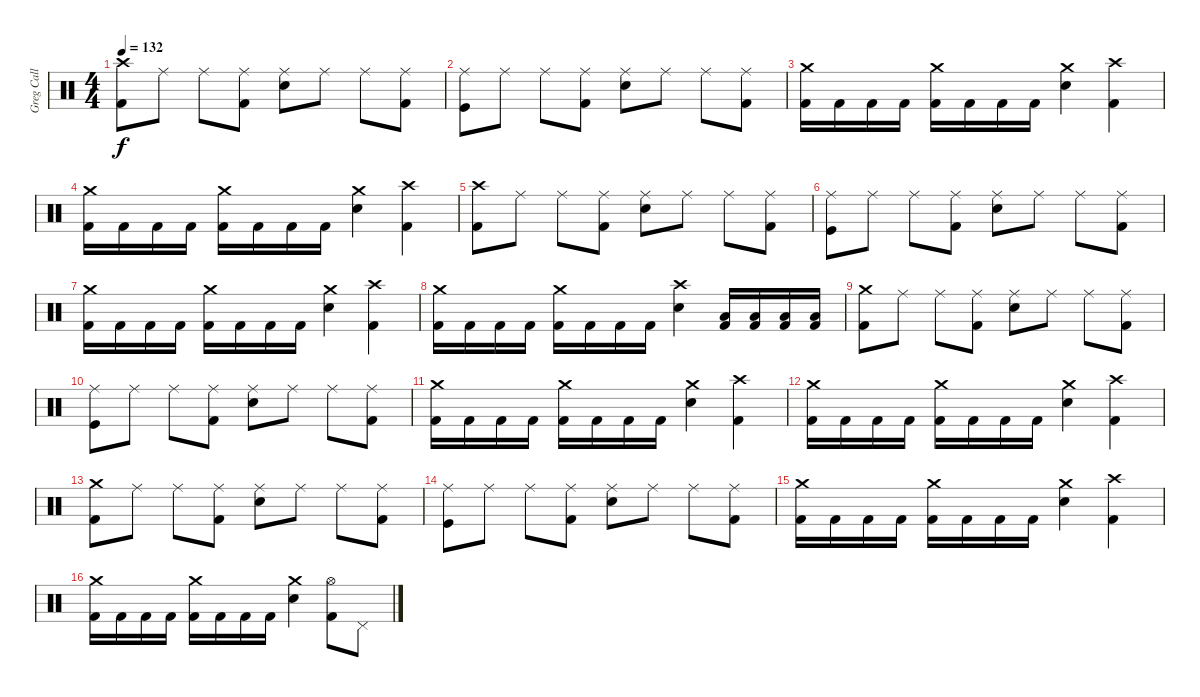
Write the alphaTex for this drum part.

\track ("Greg Call (Drums)" "Greg Call ") {instrument percussion}
\staff {score}
\articulation defaults
\ts (4 4)
\tempo 132
\clef neutral
\ks c
("Crash high (hit)" "Kick (hit) 2").8{dy f} "Ride (middle)".8 "Ride (middle)".8 ("Ride (middle)" "Kick (hit) 2").8 ("Ride (middle)" "Snare (hit) 2").8 "Ride (middle)".8 "Ride (middle)".8 ("Ride (middle)" "Kick (hit) 2").8 |
("Ride (middle)" "Kick (hit)").8 "Ride (middle)".8 "Ride (middle)".8 ("Ride (middle)" "Kick (hit) 2").8 ("Ride (middle)" "Snare (hit) 2").8 "Ride (middle)".8 "Ride (middle)".8 ("Ride (middle)" "Kick (hit) 2").8 |
("Crash medium (hit)" "Kick (hit) 2").16 "Kick (hit) 2".16 "Kick (hit) 2".16 "Kick (hit) 2".16 ("Crash medium (hit)" "Kick (hit) 2").16 "Kick (hit) 2".16 "Kick (hit) 2".16 "Kick (hit) 2".16 ("Crash medium (hit)" "Snare (hit) 2").4 ("Crash high (hit)" "Kick (hit) 2").4 |
("Crash medium (hit)" "Kick (hit) 2").16 "Kick (hit) 2".16 "Kick (hit) 2".16 "Kick (hit) 2".16 ("Crash medium (hit)" "Kick (hit) 2").16 "Kick (hit) 2".16 "Kick (hit) 2".16 "Kick (hit) 2".16 ("Crash medium (hit)" "Snare (hit) 2").4 ("Crash high (hit)" "Kick (hit) 2").4 |
("Crash high (hit)" "Kick (hit) 2").8 "Ride (middle)".8 "Ride (middle)".8 ("Ride (middle)" "Kick (hit) 2").8 ("Ride (middle)" "Snare (hit) 2").8 "Ride (middle)".8 "Ride (middle)".8 ("Ride (middle)" "Kick (hit) 2").8 |
("Ride (middle)" "Kick (hit)").8 "Ride (middle)".8 "Ride (middle)".8 ("Ride (middle)" "Kick (hit) 2").8 ("Ride (middle)" "Snare (hit) 2").8 "Ride (middle)".8 "Ride (middle)".8 ("Ride (middle)" "Kick (hit) 2").8 |
("Crash medium (hit)" "Kick (hit) 2").16 "Kick (hit) 2".16 "Kick (hit) 2".16 "Kick (hit) 2".16 ("Crash medium (hit)" "Kick (hit) 2").16 "Kick (hit) 2".16 "Kick (hit) 2".16 "Kick (hit) 2".16 ("Crash medium (hit)" "Snare (hit) 2").4 ("Crash high (hit)" "Kick (hit) 2").4 |
("Crash medium (hit)" "Kick (hit) 2").16 "Kick (hit) 2".16 "Kick (hit) 2".16 "Kick (hit) 2".16 ("Crash medium (hit)" "Kick (hit) 2").16 "Kick (hit) 2".16 "Kick (hit) 2".16 "Kick (hit) 2".16 ("Crash high (hit)" "Snare (hit) 2").4 ("Low Floor Tom (hit)" "Kick (hit) 2").16 ("Low Floor Tom (hit)" "Kick (hit) 2").16 ("Low Floor Tom (hit)" "Kick (hit) 2").16 ("Low Floor Tom (hit)" "Kick (hit) 2").16 |
("Crash medium (hit)" "Kick (hit) 2").8 "Ride (middle)".8 "Ride (middle)".8 ("Ride (middle)" "Kick (hit) 2").8 ("Ride (middle)" "Snare (hit) 2").8 "Ride (middle)".8 "Ride (middle)".8 ("Ride (middle)" "Kick (hit) 2").8 |
("Ride (middle)" "Kick (hit)").8 "Ride (middle)".8 "Ride (middle)".8 ("Ride (middle)" "Kick (hit) 2").8 ("Ride (middle)" "Snare (hit) 2").8 "Ride (middle)".8 "Ride (middle)".8 ("Ride (middle)" "Kick (hit) 2").8 |
("Crash medium (hit)" "Kick (hit) 2").16 "Kick (hit) 2".16 "Kick (hit) 2".16 "Kick (hit) 2".16 ("Crash medium (hit)" "Kick (hit) 2").16 "Kick (hit) 2".16 "Kick (hit) 2".16 "Kick (hit) 2".16 ("Crash medium (hit)" "Snare (hit) 2").4 ("Crash high (hit)" "Kick (hit) 2").4 |
("Crash medium (hit)" "Kick (hit) 2").16 "Kick (hit) 2".16 "Kick (hit) 2".16 "Kick (hit) 2".16 ("Crash medium (hit)" "Kick (hit) 2").16 "Kick (hit) 2".16 "Kick (hit) 2".16 "Kick (hit) 2".16 ("Crash medium (hit)" "Snare (hit) 2").4 ("Crash high (hit)" "Kick (hit) 2").4 |
("Crash medium (hit)" "Kick (hit) 2").8 "Ride (middle)".8 "Ride (middle)".8 ("Ride (middle)" "Kick (hit) 2").8 ("Ride (middle)" "Snare (hit) 2").8 "Ride (middle)".8 "Ride (middle)".8 ("Ride (middle)" "Kick (hit) 2").8 |
("Ride (middle)" "Kick (hit)").8 "Ride (middle)".8 "Ride (middle)".8 ("Ride (middle)" "Kick (hit) 2").8 ("Ride (middle)" "Snare (hit) 2").8 "Ride (middle)".8 "Ride (middle)".8 ("Ride (middle)" "Kick (hit) 2").8 |
("Crash medium (hit)" "Kick (hit) 2").16 "Kick (hit) 2".16 "Kick (hit) 2".16 "Kick (hit) 2".16 ("Crash medium (hit)" "Kick (hit) 2").16 "Kick (hit) 2".16 "Kick (hit) 2".16 "Kick (hit) 2".16 ("Crash medium (hit)" "Snare (hit) 2").4 ("Crash high (hit)" "Kick (hit) 2").4 |
("Crash medium (hit)" "Kick (hit) 2").16 "Kick (hit) 2".16 "Kick (hit) 2".16 "Kick (hit) 2".16 ("Crash medium (hit)" "Kick (hit) 2").16 "Kick (hit) 2".16 "Kick (hit) 2".16 "Kick (hit) 2".16 ("Crash medium (hit)" "Snare (hit) 2").4 ("Kick (hit) 2" "Hi-Hat (open)").8 "Pedal Hi-Hat (hit)".8
